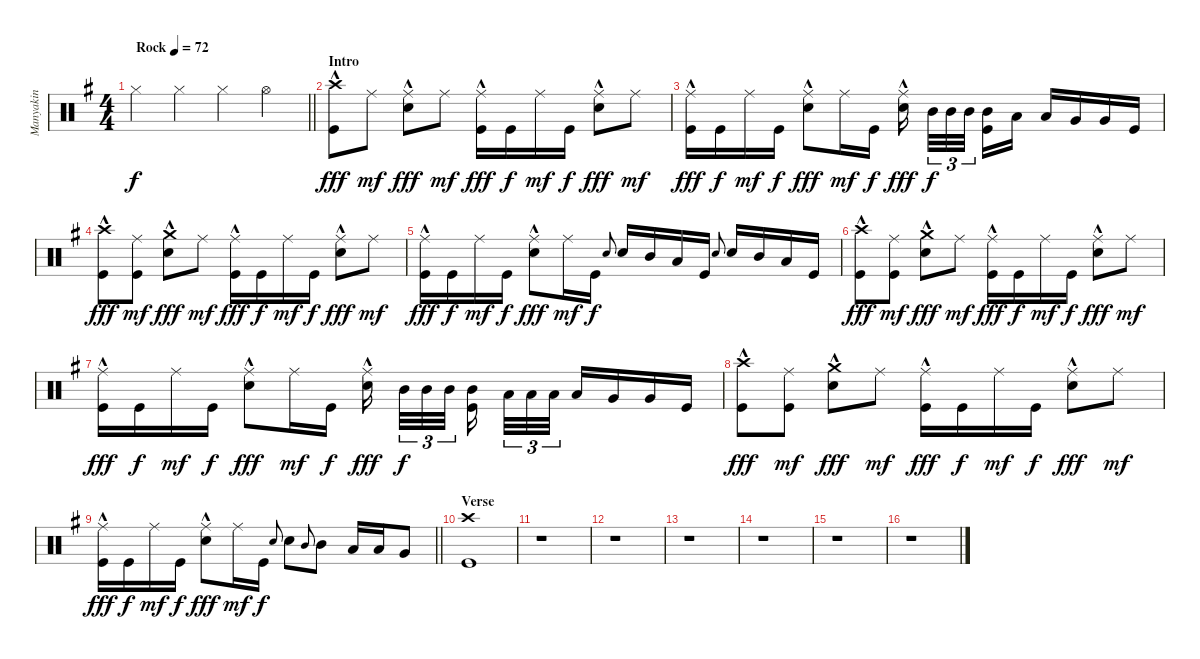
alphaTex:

\track ("Manyakin" "Manyakin") {instrument percussion}
\staff {score}
\articulation defaults
\ts (4 4)
\tempo (72 "Rock")
\clef neutral
\barLineRight lightlight
\ks eminor "Hi-Hat (closed)".4{dy f beam Down} "Hi-Hat (closed)".4{beam Down} "Hi-Hat (closed)".4{beam Down} "Hi-Hat (open)".4{beam Down}
|
\section ("" "Intro")
("Crash high (hit)"{hac} "Kick (hit)").8{dy fff beam Down} "Ride (middle)".8{dy mf beam Down} ("Ride (middle)"{hac} "Snare (hit) 2").8{dy fff beam Down} "Ride (middle)".8{dy mf beam Down} ("Ride (middle)"{hac} "Kick (hit)").16{dy fff beam Down} "Kick (hit)".16{dy f beam Down} "Ride (middle)".16{dy mf beam Down} "Kick (hit)".16{dy f beam Down} ("Ride (middle)"{hac} "Snare (hit) 2").8{dy fff beam Down} "Ride (middle)".8{dy mf beam Down} |
("Ride (middle)"{hac} "Kick (hit)").16{dy fff beam Down} "Kick (hit)".16{dy f beam Down} "Ride (middle)".16{dy mf beam Down} "Kick (hit)".16{dy f beam Down} ("Ride (middle)"{hac} "Snare (hit) 2").8{dy fff beam Down} "Ride (middle)".16{dy mf beam Down} "Kick (hit)".16{dy f beam Down} ("Ride (middle)"{hac} "Snare (hit) 2").16{dy fff beam Down beam splitsecondary} "Mid Tom (hit)".32{tu (3 2) dy f beam Down} "Mid Tom (hit)".32{tu (3 2) beam Down} "Mid Tom (hit)".32{tu (3 2) beam Down beam splitsecondary} ("Mid Tom (hit)" "Kick (hit)").16{beam Down} "Low Tom (hit)".16{beam Down} "Low Tom (hit)".16{beam Up} "Very Low Tom (hit)".16{beam Up} "Very Low Tom (hit)".16{beam Up} "Kick (hit)".16{beam Up} |
("Crash high (hit)"{hac} "Kick (hit)").8{dy fff beam Down} ("Ride (middle)" "Kick (hit)").8{dy mf beam Down} ("Crash medium (hit)"{hac} "Snare (hit) 2").8{dy fff beam Down} "Ride (middle)".8{dy mf beam Down} ("Ride (middle)"{hac} "Kick (hit)").16{dy fff beam Down} "Kick (hit)".16{dy f beam Down} "Ride (middle)".16{dy mf beam Down} "Kick (hit)".16{dy f beam Down} ("Ride (middle)"{hac} "Snare (hit) 2").8{dy fff beam Down} "Ride (middle)".8{dy mf beam Down} |
("Ride (middle)"{hac} "Kick (hit)").16{dy fff beam Down} "Kick (hit)".16{dy f beam Down} "Ride (middle)".16{dy mf beam Down} "Kick (hit)".16{dy f beam Down} ("Ride (middle)"{hac} "Snare (hit) 2").8{dy fff beam Down} "Ride (middle)".16{dy mf beam Down} "Kick (hit)".16{dy f beam Down} "Snare (hit) 2".8{gr onbeat} "Snare (hit) 2".16{beam Up} "Mid Tom (hit)".16{beam Up} "Low Tom (hit)".16{beam Up} "Kick (hit)".16{beam Up} "Snare (hit) 2".8{gr onbeat} "Snare (hit) 2".16{beam Up} "Mid Tom (hit)".16{beam Up} "Low Tom (hit)".16{beam Up} "Kick (hit)".16{beam Up} |
("Crash high (hit)"{hac} "Kick (hit)").8{dy fff beam Down} ("Ride (middle)" "Kick (hit)").8{dy mf beam Down} ("Crash medium (hit)"{hac} "Snare (hit) 2").8{dy fff beam Down} "Ride (middle)".8{dy mf beam Down} ("Ride (middle)"{hac} "Kick (hit)").16{dy fff beam Down} "Kick (hit)".16{dy f beam Down} "Ride (middle)".16{dy mf beam Down} "Kick (hit)".16{dy f beam Down} ("Ride (middle)"{hac} "Snare (hit) 2").8{dy fff beam Down} "Ride (middle)".8{dy mf beam Down} |
("Ride (middle)"{hac} "Kick (hit)").16{dy fff beam Down} "Kick (hit)".16{dy f beam Down} "Ride (middle)".16{dy mf beam Down} "Kick (hit)".16{dy f beam Down} ("Ride (middle)"{hac} "Snare (hit) 2").8{dy fff beam Down} "Ride (middle)".16{dy mf beam Down} "Kick (hit)".16{dy f beam Down} ("Ride (middle)"{hac} "Snare (hit) 2").16{dy fff beam Down beam splitsecondary} "Mid Tom (hit)".32{tu (3 2) dy f beam Down} "Mid Tom (hit)".32{tu (3 2) beam Down} "Mid Tom (hit)".32{tu (3 2) beam Down beam splitsecondary} ("Mid Tom (hit)" "Kick (hit)").16{beam Down beam splitsecondary} "Low Tom (hit)".32{tu (3 2) beam Down} "Low Tom (hit)".32{tu (3 2) beam Down} "Low Tom (hit)".32{tu (3 2) beam Down} "Low Tom (hit)".16{beam Up} "Very Low Tom (hit)".16{beam Up} "Very Low Tom (hit)".16{beam Up} "Kick (hit)".16{beam Up} |
("Crash high (hit)"{hac} "Kick (hit)").8{dy fff beam Down} ("Ride (middle)" "Kick (hit)").8{dy mf beam Down} ("Crash medium (hit)"{hac} "Snare (hit) 2").8{dy fff beam Down} "Ride (middle)".8{dy mf beam Down} ("Ride (middle)"{hac} "Kick (hit)").16{dy fff beam Down} "Kick (hit)".16{dy f beam Down} "Ride (middle)".16{dy mf beam Down} "Kick (hit)".16{dy f beam Down} ("Ride (middle)"{hac} "Snare (hit) 2").8{dy fff beam Down} "Ride (middle)".8{dy mf beam Down} |
\barLineRight lightlight
("Ride (middle)"{hac} "Kick (hit)").16{dy fff beam Down} "Kick (hit)".16{dy f beam Down} "Ride (middle)".16{dy mf beam Down} "Kick (hit)".16{dy f beam Down} ("Ride (middle)"{hac} "Snare (hit) 2").8{dy fff beam Down} "Ride (middle)".16{dy mf beam Down} "Kick (hit)".16{dy f beam Down} "Snare (hit) 2".8{gr onbeat} "Snare (hit) 2".8{beam Down} "Mid Tom (hit)".8{gr onbeat} "Mid Tom (hit)".8{beam Down} "Low Tom (hit)".16{beam Up} "Low Tom (hit)".16{beam Up} "Very Low Tom (hit)".8{beam Up} |
\section ("" "Verse")
("Crash high (hit)" "Kick (hit)").1 |
r.1 |
r.1 |
r.1 |
r.1 |
r.1 |
r.1
